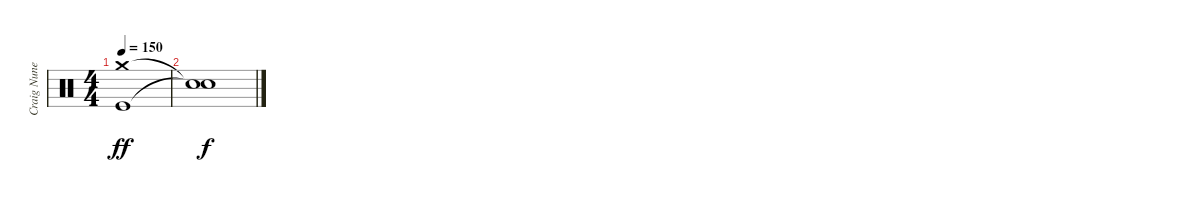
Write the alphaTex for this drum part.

\track ("Craig Nunenmacher (Drums)" "Craig Nune") {instrument percussion}
\staff {score}
\articulation defaults
\ts (4 4)
\tempo 150
\clef neutral
\ks c
("Crash medium (hit)" "Kick (hit)").1{dy ff} |
("Snare (hit)"{t} "Snare (hit)"{t}).1{dy f volume 0}
